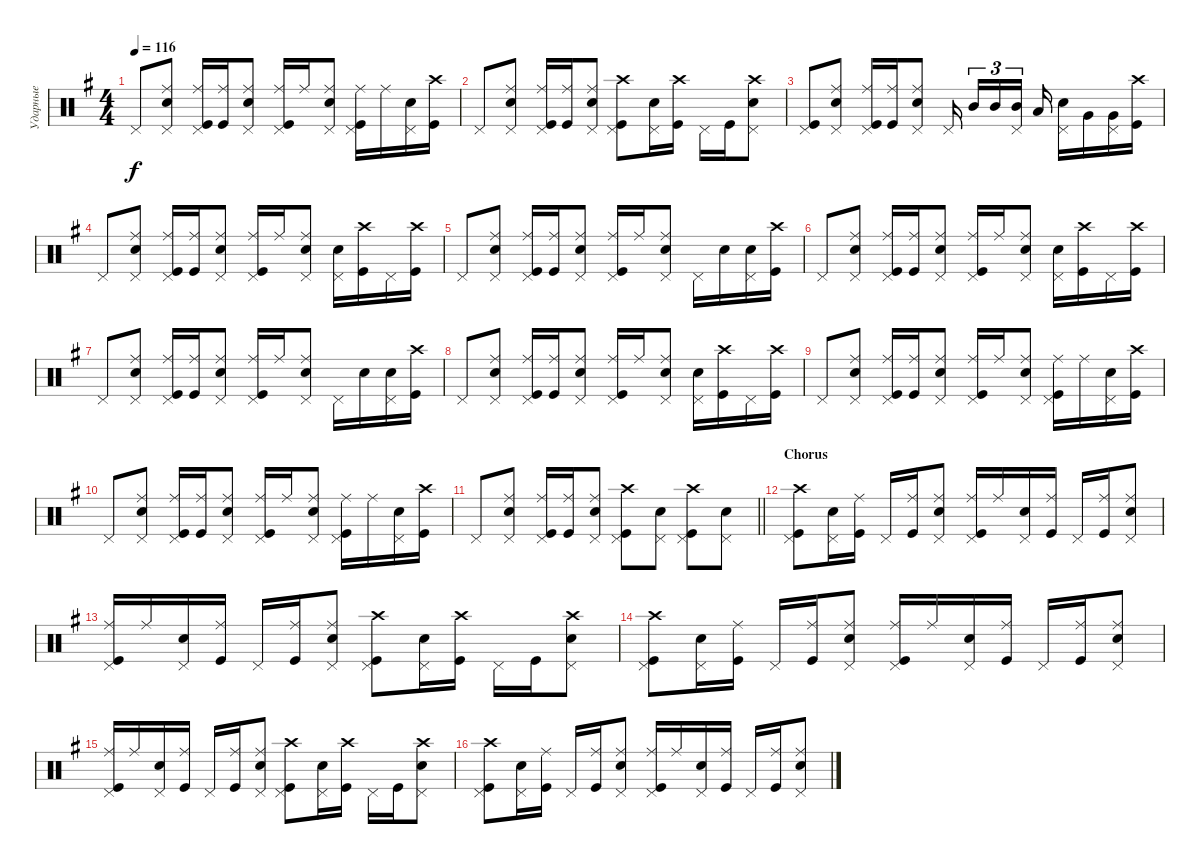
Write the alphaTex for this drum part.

\track ("Ударные" "Ударные") {instrument percussion}
\staff {score}
\articulation defaults
\ts (4 4)
\tempo 116
\clef neutral
\ks eminor "Pedal Hi-Hat (hit)".8{dy f}
("Snare (hit) 2" "Pedal Hi-Hat (hit)" "Ride (middle)").8 ("Kick (hit)" "Pedal Hi-Hat (hit)" "Ride (middle)").16 ("Kick (hit)" "Ride (middle)").16 ("Snare (hit) 2" "Pedal Hi-Hat (hit)" "Ride (middle)").8 ("Kick (hit)" "Pedal Hi-Hat (hit)" "Ride (middle)").16 "Ride (middle)".16 ("Snare (hit) 2" "Pedal Hi-Hat (hit)" "Ride (middle)").8 ("Kick (hit)" "Ride (middle)" "Pedal Hi-Hat (hit)").16 "Ride (middle)".16 ("Snare (hit) 2" "Pedal Hi-Hat (hit)").16 ("Kick (hit)" "Crash high (hit)").16 |
"Pedal Hi-Hat (hit)".8 ("Snare (hit) 2" "Ride (middle)" "Pedal Hi-Hat (hit)").8 ("Kick (hit)" "Ride (middle)" "Pedal Hi-Hat (hit)").16 ("Kick (hit)" "Ride (middle)").16 ("Snare (hit) 2" "Ride (middle)" "Pedal Hi-Hat (hit)").8 ("Kick (hit)" "Crash high (hit)" "Pedal Hi-Hat (hit)").8 ("Snare (hit) 2" "Pedal Hi-Hat (hit)").16 ("Kick (hit)" "Crash high (hit)").16 "Pedal Hi-Hat (hit)".16 "Kick (hit)".16 ("Snare (hit) 2" "Crash high (hit)" "Pedal Hi-Hat (hit)").8 |
("Kick (hit)" "Pedal Hi-Hat (hit)").8 ("Snare (hit) 2" "Ride (middle)" "Pedal Hi-Hat (hit)").8 ("Kick (hit)" "Ride (middle)" "Pedal Hi-Hat (hit)").16 ("Kick (hit)" "Ride (middle)").16 ("Snare (hit) 2" "Ride (middle)" "Pedal Hi-Hat (hit)").8 "Pedal Hi-Hat (hit)".16{beam splitsecondary} "Mid Tom (hit)".16{tu (3 2)} "Mid Tom (hit)".16{tu (3 2)} ("Mid Tom (hit)" "Pedal Hi-Hat (hit)").16{tu (3 2) beam splitsecondary} "Low Tom (hit)".16 ("Snare (hit) 2" "Pedal Hi-Hat (hit)").16 "Very Low Tom (hit)".16 ("Pedal Hi-Hat (hit)" "Very Low Tom (hit)").16 ("Kick (hit)" "Crash high (hit)").16 |
"Pedal Hi-Hat (hit)".8 ("Snare (hit) 2" "Pedal Hi-Hat (hit)" "Ride (middle)").8 ("Kick (hit)" "Pedal Hi-Hat (hit)" "Ride (middle)").16 ("Kick (hit)" "Ride (middle)").16 ("Snare (hit) 2" "Pedal Hi-Hat (hit)" "Ride (middle)").8 ("Pedal Hi-Hat (hit)" "Kick (hit)" "Ride (middle)").16 "Ride (middle)".16 ("Snare (hit) 2" "Pedal Hi-Hat (hit)" "Ride (middle)").8 ("Snare (hit) 2" "Pedal Hi-Hat (hit)").16 ("Kick (hit)" "Crash high (hit)").16 "Pedal Hi-Hat (hit)".16 ("Kick (hit)" "Crash high (hit)").16 |
"Pedal Hi-Hat (hit)".8 ("Snare (hit) 2" "Pedal Hi-Hat (hit)" "Ride (middle)").8 ("Kick (hit)" "Pedal Hi-Hat (hit)" "Ride (middle)").16 ("Kick (hit)" "Ride (middle)").16 ("Snare (hit) 2" "Pedal Hi-Hat (hit)" "Ride (middle)").8 ("Pedal Hi-Hat (hit)" "Kick (hit)" "Ride (middle)").16 "Ride (middle)".16 ("Snare (hit) 2" "Pedal Hi-Hat (hit)" "Ride (middle)").8 "Pedal Hi-Hat (hit)".16 "Snare (hit) 2".16 ("Snare (hit) 2" "Pedal Hi-Hat (hit)").16 ("Kick (hit)" "Crash high (hit)").16 |
"Pedal Hi-Hat (hit)".8 ("Snare (hit) 2" "Pedal Hi-Hat (hit)" "Ride (middle)").8 ("Kick (hit)" "Pedal Hi-Hat (hit)" "Ride (middle)").16 ("Kick (hit)" "Ride (middle)").16 ("Snare (hit) 2" "Pedal Hi-Hat (hit)" "Ride (middle)").8 ("Pedal Hi-Hat (hit)" "Kick (hit)" "Ride (middle)").16 "Ride (middle)".16 ("Snare (hit) 2" "Pedal Hi-Hat (hit)" "Ride (middle)").8 ("Snare (hit) 2" "Pedal Hi-Hat (hit)").16 ("Kick (hit)" "Crash high (hit)").16 "Pedal Hi-Hat (hit)".16 ("Kick (hit)" "Crash high (hit)").16 |
"Pedal Hi-Hat (hit)".8 ("Snare (hit) 2" "Pedal Hi-Hat (hit)" "Ride (middle)").8 ("Kick (hit)" "Pedal Hi-Hat (hit)" "Ride (middle)").16 ("Kick (hit)" "Ride (middle)").16 ("Snare (hit) 2" "Pedal Hi-Hat (hit)" "Ride (middle)").8 ("Pedal Hi-Hat (hit)" "Kick (hit)" "Ride (middle)").16 "Ride (middle)".16 ("Snare (hit) 2" "Pedal Hi-Hat (hit)" "Ride (middle)").8 "Pedal Hi-Hat (hit)".16 "Snare (hit) 2".16 ("Snare (hit) 2" "Pedal Hi-Hat (hit)").16 ("Kick (hit)" "Crash high (hit)").16 |
"Pedal Hi-Hat (hit)".8 ("Snare (hit) 2" "Pedal Hi-Hat (hit)" "Ride (middle)").8 ("Kick (hit)" "Pedal Hi-Hat (hit)" "Ride (middle)").16 ("Kick (hit)" "Ride (middle)").16 ("Snare (hit) 2" "Pedal Hi-Hat (hit)" "Ride (middle)").8 ("Pedal Hi-Hat (hit)" "Kick (hit)" "Ride (middle)").16 "Ride (middle)".16 ("Snare (hit) 2" "Pedal Hi-Hat (hit)" "Ride (middle)").8 ("Snare (hit) 2" "Pedal Hi-Hat (hit)").16 ("Kick (hit)" "Crash high (hit)").16 "Pedal Hi-Hat (hit)".16 ("Kick (hit)" "Crash high (hit)").16 |
"Pedal Hi-Hat (hit)".8 ("Snare (hit) 2" "Pedal Hi-Hat (hit)" "Ride (middle)").8 ("Kick (hit)" "Pedal Hi-Hat (hit)" "Ride (middle)").16 ("Kick (hit)" "Ride (middle)").16 ("Snare (hit) 2" "Pedal Hi-Hat (hit)" "Ride (middle)").8 ("Kick (hit)" "Pedal Hi-Hat (hit)" "Ride (middle)").16 "Ride (middle)".16 ("Snare (hit) 2" "Pedal Hi-Hat (hit)" "Ride (middle)").8 ("Kick (hit)" "Ride (middle)" "Pedal Hi-Hat (hit)").16 "Ride (middle)".16 ("Snare (hit) 2" "Pedal Hi-Hat (hit)").16 ("Kick (hit)" "Crash high (hit)").16 |
"Pedal Hi-Hat (hit)".8 ("Snare (hit) 2" "Pedal Hi-Hat (hit)" "Ride (middle)").8 ("Kick (hit)" "Pedal Hi-Hat (hit)" "Ride (middle)").16 ("Kick (hit)" "Ride (middle)").16 ("Snare (hit) 2" "Pedal Hi-Hat (hit)" "Ride (middle)").8 ("Kick (hit)" "Pedal Hi-Hat (hit)" "Ride (middle)").16 "Ride (middle)".16 ("Snare (hit) 2" "Pedal Hi-Hat (hit)" "Ride (middle)").8 ("Kick (hit)" "Ride (middle)" "Pedal Hi-Hat (hit)").16 "Ride (middle)".16 ("Snare (hit) 2" "Pedal Hi-Hat (hit)").16 ("Kick (hit)" "Crash high (hit)").16 |
\barLineRight lightlight "Pedal Hi-Hat (hit)".8
("Snare (hit) 2" "Pedal Hi-Hat (hit)" "Ride (middle)").8 ("Kick (hit)" "Pedal Hi-Hat (hit)" "Ride (middle)").16 ("Kick (hit)" "Ride (middle)").16 ("Snare (hit) 2" "Pedal Hi-Hat (hit)" "Ride (middle)").8 ("Kick (hit)" "Crash high (hit)" "Pedal Hi-Hat (hit)").8 ("Snare (hit) 2" "Pedal Hi-Hat (hit)").8 ("Kick (hit)" "Crash high (hit)" "Pedal Hi-Hat (hit)").8 ("Snare (hit) 2" "Pedal Hi-Hat (hit)").8 |
\section ("" "Chorus")
("Kick (hit)" "Crash high (hit)" "Pedal Hi-Hat (hit)").8 ("Snare (hit) 2" "Pedal Hi-Hat (hit)").16 ("Kick (hit)" "Ride (middle)").16 "Pedal Hi-Hat (hit)".16 ("Ride (middle)" "Kick (hit)").16 ("Snare (hit) 2" "Ride (middle)" "Pedal Hi-Hat (hit)").8 ("Kick (hit)" "Ride (middle)" "Pedal Hi-Hat (hit)").16 "Ride (middle)".16 ("Snare (hit) 2" "Pedal Hi-Hat (hit)").16 ("Kick (hit)" "Ride (middle)").16 "Pedal Hi-Hat (hit)".16 ("Ride (middle)" "Kick (hit)").16 ("Ride (middle)" "Snare (hit) 2" "Pedal Hi-Hat (hit)").8 |
("Kick (hit)" "Ride (middle)" "Pedal Hi-Hat (hit)").16 "Ride (middle)".16 ("Snare (hit) 2" "Pedal Hi-Hat (hit)").16 ("Kick (hit)" "Ride (middle)").16 "Pedal Hi-Hat (hit)".16 ("Ride (middle)" "Kick (hit)").16 ("Snare (hit) 2" "Ride (middle)" "Pedal Hi-Hat (hit)").8 ("Kick (hit)" "Crash high (hit)" "Pedal Hi-Hat (hit)").8 ("Snare (hit) 2" "Pedal Hi-Hat (hit)").16 ("Kick (hit)" "Crash high (hit)").16 "Pedal Hi-Hat (hit)".16 "Kick (hit)".16 ("Crash high (hit)" "Snare (hit) 2" "Pedal Hi-Hat (hit)").8 |
("Kick (hit)" "Crash high (hit)" "Pedal Hi-Hat (hit)").8 ("Snare (hit) 2" "Pedal Hi-Hat (hit)").16 ("Kick (hit)" "Ride (middle)").16 "Pedal Hi-Hat (hit)".16 ("Ride (middle)" "Kick (hit)").16 ("Snare (hit) 2" "Ride (middle)" "Pedal Hi-Hat (hit)").8 ("Kick (hit)" "Ride (middle)" "Pedal Hi-Hat (hit)").16 "Ride (middle)".16 ("Snare (hit) 2" "Pedal Hi-Hat (hit)").16 ("Kick (hit)" "Ride (middle)").16 "Pedal Hi-Hat (hit)".16 ("Ride (middle)" "Kick (hit)").16 ("Ride (middle)" "Snare (hit) 2" "Pedal Hi-Hat (hit)").8 |
("Kick (hit)" "Ride (middle)" "Pedal Hi-Hat (hit)").16 "Ride (middle)".16 ("Snare (hit) 2" "Pedal Hi-Hat (hit)").16 ("Kick (hit)" "Ride (middle)").16 "Pedal Hi-Hat (hit)".16 ("Ride (middle)" "Kick (hit)").16 ("Snare (hit) 2" "Ride (middle)" "Pedal Hi-Hat (hit)").8 ("Kick (hit)" "Crash high (hit)" "Pedal Hi-Hat (hit)").8 ("Snare (hit) 2" "Pedal Hi-Hat (hit)").16 ("Kick (hit)" "Crash high (hit)").16 "Pedal Hi-Hat (hit)".16 "Kick (hit)".16 ("Crash high (hit)" "Snare (hit) 2" "Pedal Hi-Hat (hit)").8 |
("Kick (hit)" "Crash high (hit)" "Pedal Hi-Hat (hit)").8 ("Snare (hit) 2" "Pedal Hi-Hat (hit)").16 ("Kick (hit)" "Ride (middle)").16 "Pedal Hi-Hat (hit)".16 ("Ride (middle)" "Kick (hit)").16 ("Snare (hit) 2" "Ride (middle)" "Pedal Hi-Hat (hit)").8 ("Kick (hit)" "Ride (middle)" "Pedal Hi-Hat (hit)").16 "Ride (middle)".16 ("Snare (hit) 2" "Pedal Hi-Hat (hit)").16 ("Kick (hit)" "Ride (middle)").16 "Pedal Hi-Hat (hit)".16 ("Ride (middle)" "Kick (hit)").16 ("Ride (middle)" "Snare (hit) 2" "Pedal Hi-Hat (hit)").8
